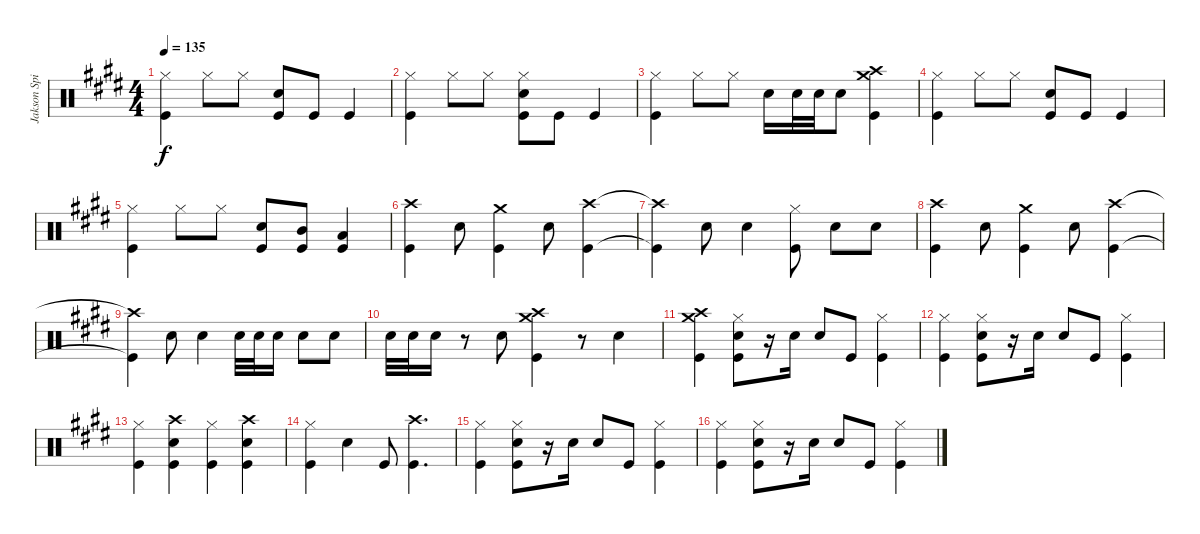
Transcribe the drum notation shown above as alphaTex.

\track ("Jakson Spires Drums" "Jakson Spi") {instrument percussion}
\staff {score}
\articulation defaults
\ts (4 4)
\tempo 135
\clef neutral
\ks e
("Hi-Hat (closed)" "Kick (hit)").4{dy f} "Hi-Hat (closed)".8 "Hi-Hat (closed)".8 ("Snare (hit) 2" "Kick (hit)").8 "Kick (hit)".8 "Kick (hit)".4 |
("Hi-Hat (closed)" "Kick (hit)").4 "Hi-Hat (closed)".8 "Hi-Hat (closed)".8 ("Hi-Hat (closed)" "Snare (hit) 2" "Kick (hit)").8 "Kick (hit)".8 "Kick (hit)".4 |
("Hi-Hat (closed)" "Kick (hit)").4 "Hi-Hat (closed)".8 "Hi-Hat (closed)".8 "Snare (hit) 2".16 "Snare (hit) 2".32 "Snare (hit) 2".32 "Snare (hit) 2".8 ("Crash high (hit)" "Crash medium (hit)" "Kick (hit)").4 |
("Hi-Hat (closed)" "Kick (hit)").4 "Hi-Hat (closed)".8 "Hi-Hat (closed)".8 ("Snare (hit) 2" "Kick (hit)").8 "Kick (hit)".8 "Kick (hit)".4 |
("Hi-Hat (closed)" "Kick (hit)").4 "Hi-Hat (closed)".8 "Hi-Hat (closed)".8 ("Snare (hit) 2" "Kick (hit)").8 ("Mid Tom (hit)" "Kick (hit)").8 ("Low Tom (hit)" "Kick (hit)").4 |
("Crash high (hit)" "Kick (hit)").4 "Snare (hit) 2".8 ("Crash medium (hit)" "Kick (hit)").4 "Snare (hit) 2".8 ("Crash high (hit)" "Kick (hit)").4 |
("Crash high (hit)"{t} "Kick (hit)"{t}).4 "Snare (hit) 2".8 "Snare (hit) 2".4 ("Hi-Hat (closed)" "Kick (hit)").8 "Snare (hit) 2".8 "Snare (hit) 2".8 |
("Crash high (hit)" "Kick (hit)").4 "Snare (hit) 2".8 ("Crash medium (hit)" "Kick (hit)").4 "Snare (hit) 2".8 ("Crash high (hit)" "Kick (hit)").4 |
("Crash high (hit)"{t} "Kick (hit)"{t}).4 "Snare (hit) 2".8 "Snare (hit) 2".4 "Snare (hit) 2".32 "Snare (hit) 2".32 "Snare (hit) 2".16 "Snare (hit) 2".8 "Snare (hit) 2".8 |
"Snare (hit) 2".32 "Snare (hit) 2".32 "Snare (hit) 2".16 r.8 "Snare (hit) 2".8 ("Crash high (hit)" "Crash medium (hit)" "Kick (hit)").4 r.8 "Snare (hit) 2".4 |
("Crash high (hit)" "Crash medium (hit)" "Kick (hit)").4 ("Hi-Hat (closed)" "Snare (hit) 2" "Kick (hit)").8 r.16 "Snare (hit) 2".16 "Snare (hit) 2".8 "Kick (hit)".8 ("Hi-Hat (closed)" "Kick (hit)").4 |
("Hi-Hat (closed)" "Kick (hit)").4 ("Hi-Hat (closed)" "Snare (hit) 2" "Kick (hit)").8 r.16 "Snare (hit) 2".16 "Snare (hit) 2".8 "Kick (hit)".8 ("Hi-Hat (closed)" "Kick (hit)").4 |
("Hi-Hat (closed)" "Kick (hit)").4 ("Crash high (hit)" "Snare (hit) 2" "Kick (hit)").4 ("Hi-Hat (closed)" "Kick (hit)").4 ("Crash high (hit)" "Snare (hit) 2" "Kick (hit)").4 |
("Hi-Hat (closed)" "Kick (hit)").4 "Snare (hit) 2".4 "Kick (hit)".8 ("Crash high (hit)" "Kick (hit)").4{d} |
("Hi-Hat (closed)" "Kick (hit)").4 ("Hi-Hat (closed)" "Snare (hit) 2" "Kick (hit)").8 r.16 "Snare (hit) 2".16 "Snare (hit) 2".8 "Kick (hit)".8 ("Hi-Hat (closed)" "Kick (hit)").4 |
("Hi-Hat (closed)" "Kick (hit)").4 ("Hi-Hat (closed)" "Snare (hit) 2" "Kick (hit)").8 r.16 "Snare (hit) 2".16 "Snare (hit) 2".8 "Kick (hit)".8 ("Hi-Hat (closed)" "Kick (hit)").4
